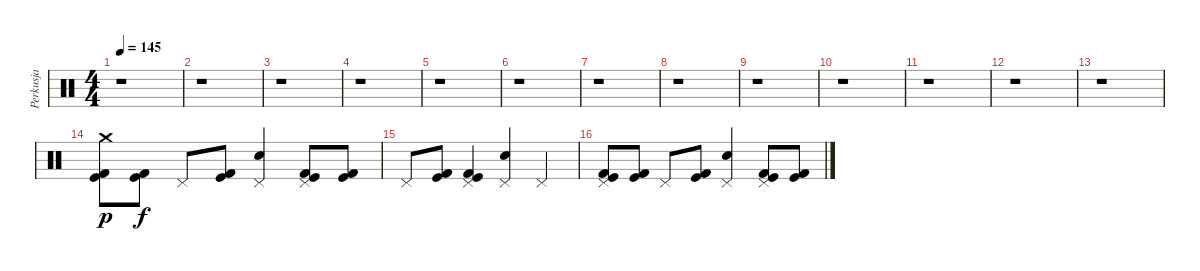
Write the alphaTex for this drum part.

\track ("Perkusja" "Perkusja") {instrument percussion}
\staff {score}
\articulation defaults
\ts (4 4)
\tempo 145
\clef neutral
\ks c
r.1{dy pp} |
r.1 |
r.1 |
r.1 |
r.1 |
r.1 |
r.1 |
r.1 |
r.1 |
r.1 |
r.1 |
r.1 |
r.1{volume 16} |
("Kick (hit) 2" "Kick (hit)" "Crash medium (hit)").8{dy p volume 16} ("Kick (hit) 2" "Kick (hit)").8{dy f} "Pedal Hi-Hat (hit)".8 ("Kick (hit) 2" "Kick (hit)").8 ("Snare (hit) 2" "Pedal Hi-Hat (hit)").4 ("Kick (hit) 2" "Kick (hit)" "Pedal Hi-Hat (hit)").8 ("Kick (hit) 2" "Kick (hit)").8 |
"Pedal Hi-Hat (hit)".8 ("Kick (hit) 2" "Kick (hit)").8 ("Kick (hit) 2" "Kick (hit)" "Pedal Hi-Hat (hit)").4 ("Snare (hit) 2" "Pedal Hi-Hat (hit)").4 "Pedal Hi-Hat (hit)".4 |
("Kick (hit) 2" "Kick (hit)" "Pedal Hi-Hat (hit)").8 ("Kick (hit) 2" "Kick (hit)").8 "Pedal Hi-Hat (hit)".8 ("Kick (hit) 2" "Kick (hit)").8 ("Snare (hit) 2" "Pedal Hi-Hat (hit)").4 ("Kick (hit) 2" "Kick (hit)" "Pedal Hi-Hat (hit)").8 ("Kick (hit) 2" "Kick (hit)").8
